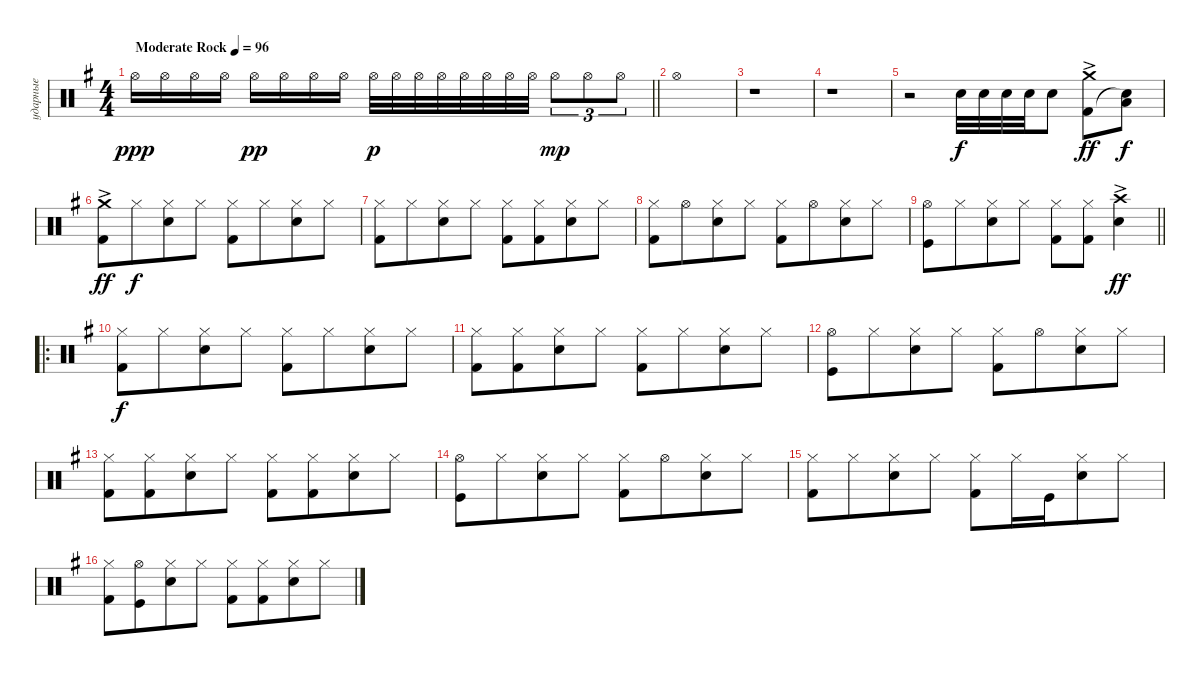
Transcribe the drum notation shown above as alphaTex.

\track ("ударные" "ударные") {instrument percussion}
\staff {score}
\articulation defaults
\ts (4 4)
\tempo (96 "Moderate Rock")
\clef neutral
\barLineRight lightlight
\ks eminor "Hi-Hat (open)".16{dy ppp} "Hi-Hat (open)".16 "Hi-Hat (open)".16 "Hi-Hat (open)".16 "Hi-Hat (open)".16{dy pp} "Hi-Hat (open)".16 "Hi-Hat (open)".16 "Hi-Hat (open)".16 "Hi-Hat (open)".32{dy p} "Hi-Hat (open)".32 "Hi-Hat (open)".32 "Hi-Hat (open)".32 "Hi-Hat (open)".32 "Hi-Hat (open)".32 "Hi-Hat (open)".32 "Hi-Hat (open)".32 "Hi-Hat (open)".8{tu (3 2) dy mp} "Hi-Hat (open)".8{tu (3 2)} "Hi-Hat (open)".8{tu (3 2)}
|
\section ("" "")
"Hi-Hat (open)".1 |
r.1 |
r.1 |
r.2 "Snare (hit) 2".32{dy f} "Snare (hit) 2".32 "Snare (hit) 2".32 "Snare (hit) 2".32 "Snare (hit) 2".8 ("Crash medium (hit)"{ac} "Kick (hit) 2").8{dy ff} ("Low Tom (hit)" "Snare (hit)"{t}).8{dy f} |
("Crash medium (hit)"{ac} "Kick (hit) 2").8{dy ff} "Hi-Hat (closed)".8{dy f beam merge} ("Hi-Hat (closed)" "Snare (hit) 2").8 "Hi-Hat (closed)".8 ("Hi-Hat (closed)" "Kick (hit) 2").8 "Hi-Hat (closed)".8{beam merge} ("Hi-Hat (closed)" "Snare (hit) 2").8 "Hi-Hat (closed)".8 |
("Hi-Hat (closed)" "Kick (hit) 2").8{beam merge} "Hi-Hat (closed)".8{beam merge} ("Hi-Hat (closed)" "Snare (hit) 2").8{beam merge} "Hi-Hat (closed)".8 ("Hi-Hat (closed)" "Kick (hit) 2").8 ("Hi-Hat (closed)" "Kick (hit) 2").8{beam merge} ("Hi-Hat (closed)" "Snare (hit) 2").8 "Hi-Hat (closed)".8 |
("Hi-Hat (closed)" "Kick (hit) 2").8 "Hi-Hat (open)".8{beam merge} ("Hi-Hat (closed)" "Snare (hit) 2").8 "Hi-Hat (closed)".8 ("Hi-Hat (closed)" "Kick (hit) 2").8 "Hi-Hat (open)".8{beam merge} ("Hi-Hat (closed)" "Snare (hit) 2").8 "Hi-Hat (closed)".8 |
\barLineRight lightlight
("Kick (hit)" "Hi-Hat (open)").8 "Hi-Hat (closed)".8{beam merge} ("Hi-Hat (closed)" "Snare (hit) 2").8 "Hi-Hat (closed)".8 ("Hi-Hat (closed)" "Kick (hit) 2").8 ("Hi-Hat (closed)" "Kick (hit) 2").8 ("Snare (hit) 2" "Crash high (hit)"{ac}).4{dy ff} |
\ro
\section ("" "")
("Hi-Hat (closed)" "Kick (hit) 2").8{dy f} "Hi-Hat (closed)".8{beam merge} ("Hi-Hat (closed)" "Snare (hit) 2").8 "Hi-Hat (closed)".8 ("Hi-Hat (closed)" "Kick (hit) 2").8 "Hi-Hat (closed)".8{beam merge} ("Hi-Hat (closed)" "Snare (hit) 2").8 "Hi-Hat (closed)".8 |
("Hi-Hat (closed)" "Kick (hit) 2").8 ("Hi-Hat (closed)" "Kick (hit) 2").8{beam merge} ("Hi-Hat (closed)" "Snare (hit) 2").8 "Hi-Hat (closed)".8 ("Hi-Hat (closed)" "Kick (hit) 2").8 "Hi-Hat (closed)".8{beam merge} ("Hi-Hat (closed)" "Snare (hit) 2").8 "Hi-Hat (closed)".8 |
("Kick (hit)" "Hi-Hat (open)").8 "Hi-Hat (closed)".8{beam merge} ("Hi-Hat (closed)" "Snare (hit) 2").8 "Hi-Hat (closed)".8 ("Hi-Hat (closed)" "Kick (hit) 2").8 "Hi-Hat (open)".8{beam merge} ("Hi-Hat (closed)" "Snare (hit) 2").8 "Hi-Hat (closed)".8 |
("Hi-Hat (closed)" "Kick (hit) 2").8 ("Hi-Hat (closed)" "Kick (hit) 2").8{beam merge} ("Hi-Hat (closed)" "Snare (hit) 2").8 "Hi-Hat (closed)".8 ("Hi-Hat (closed)" "Kick (hit) 2").8 ("Hi-Hat (closed)" "Kick (hit) 2").8{beam merge} ("Hi-Hat (closed)" "Snare (hit) 2").8 "Hi-Hat (closed)".8 |
("Kick (hit)" "Hi-Hat (open)").8 "Hi-Hat (closed)".8{beam merge} ("Hi-Hat (closed)" "Snare (hit) 2").8 "Hi-Hat (closed)".8 ("Hi-Hat (closed)" "Kick (hit) 2").8 "Hi-Hat (open)".8{beam merge} ("Hi-Hat (closed)" "Snare (hit) 2").8 "Hi-Hat (closed)".8 |
("Hi-Hat (closed)" "Kick (hit) 2").8 "Hi-Hat (closed)".8{beam merge} ("Hi-Hat (closed)" "Snare (hit) 2").8 "Hi-Hat (closed)".8 ("Hi-Hat (closed)" "Kick (hit) 2").8 "Hi-Hat (closed)".16 "Kick (hit)".16{beam merge} ("Hi-Hat (closed)" "Snare (hit) 2").8 "Hi-Hat (closed)".8 |
("Hi-Hat (closed)" "Kick (hit) 2").8 ("Kick (hit)" "Hi-Hat (open)").8{beam merge} ("Hi-Hat (closed)" "Snare (hit) 2").8 "Hi-Hat (closed)".8 ("Hi-Hat (closed)" "Kick (hit) 2").8 ("Hi-Hat (closed)" "Kick (hit) 2").8{beam merge} ("Hi-Hat (closed)" "Snare (hit) 2").8 "Hi-Hat (closed)".8
